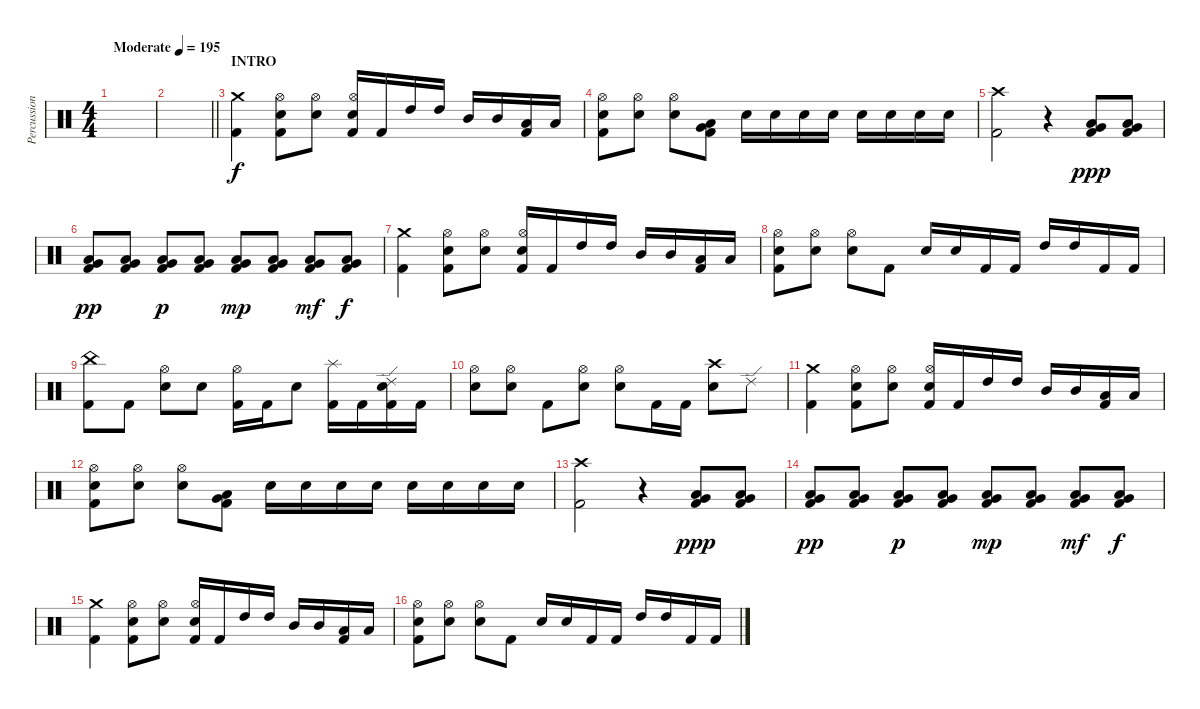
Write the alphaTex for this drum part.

\track ("Percussion" "Percussion") {instrument percussion}
\staff {score}
\articulation defaults
\ts (4 4)
\tempo (195 "Moderate")
\clef neutral
\ks c
|
\barLineRight lightlight
|
\section ("" "INTRO")
("Crash medium (hit)" "Kick (hit) 2").4 ("Hi-Hat (open)" "Electric Snare (hit)" "Kick (hit) 2").8 ("Hi-Hat (open)" "Electric Snare (hit)").8 ("Hi-Hat (open)" "Electric Snare (hit)" "Kick (hit) 2").16 "Kick (hit) 2".16 "High Tom (hit)".16 "High Tom (hit)".16 "Mid Tom (hit)".16 "Mid Tom (hit)".16 ("Low Tom (hit)" "Kick (hit) 2").16 "Low Tom (hit)".16 |
("Hi-Hat (open)" "Electric Snare (hit)" "Kick (hit) 2").8 ("Hi-Hat (open)" "Electric Snare (hit)").8 ("Hi-Hat (open)" "Electric Snare (hit)").8 ("Very Low Tom (hit)" "Low Floor Tom (hit)" "Kick (hit) 2").8 "Electric Snare (hit)".16 "Electric Snare (hit)".16 "Electric Snare (hit)".16 "Electric Snare (hit)".16 "Electric Snare (hit)".16 "Electric Snare (hit)".16 "Electric Snare (hit)".16 "Electric Snare (hit)".16 |
("Crash high (hit)" "Kick (hit) 2").2 r.4 ("Very Low Tom (hit)" "Low Floor Tom (hit)" "Kick (hit) 2").8{dy ppp} ("Very Low Tom (hit)" "Low Floor Tom (hit)" "Kick (hit) 2").8 |
("Very Low Tom (hit)" "Low Floor Tom (hit)" "Kick (hit) 2").8{dy pp} ("Very Low Tom (hit)" "Low Floor Tom (hit)" "Kick (hit) 2").8 ("Very Low Tom (hit)" "Low Floor Tom (hit)" "Kick (hit) 2").8{dy p} ("Very Low Tom (hit)" "Low Floor Tom (hit)" "Kick (hit) 2").8 ("Very Low Tom (hit)" "Low Floor Tom (hit)" "Kick (hit) 2").8{dy mp} ("Very Low Tom (hit)" "Low Floor Tom (hit)" "Kick (hit) 2").8 ("Very Low Tom (hit)" "Low Floor Tom (hit)" "Kick (hit) 2").8{dy mf} ("Very Low Tom (hit)" "Low Floor Tom (hit)" "Kick (hit) 2").8{dy f} |
("Crash medium (hit)" "Kick (hit) 2").4 ("Hi-Hat (open)" "Electric Snare (hit)" "Kick (hit) 2").8 ("Hi-Hat (open)" "Electric Snare (hit)").8 ("Hi-Hat (open)" "Electric Snare (hit)" "Kick (hit) 2").16 "Kick (hit) 2".16 "High Tom (hit)".16 "High Tom (hit)".16 "Mid Tom (hit)".16 "Mid Tom (hit)".16 ("Low Tom (hit)" "Kick (hit) 2").16 "Low Tom (hit)".16 |
("Hi-Hat (open)" "Electric Snare (hit)" "Kick (hit) 2").8 ("Hi-Hat (open)" "Electric Snare (hit)").8 ("Hi-Hat (open)" "Electric Snare (hit)").8 "Kick (hit) 2".8 "Electric Snare (hit)".16 "Electric Snare (hit)".16 "Kick (hit) 2".16 "Kick (hit) 2".16 "High Tom (hit)".16 "High Tom (hit)".16 "Kick (hit) 2".16 "Kick (hit) 2".16 |
("China (hit)" "Kick (hit) 2").8 "Kick (hit) 2".8 ("Hi-Hat (open)" "Electric Snare (hit)").8 "Electric Snare (hit)".8 ("Hi-Hat (open)" "Kick (hit) 2").16 "Kick (hit) 2".16 "Electric Snare (hit)".8 ("Splash (hit)" "Kick (hit) 2").16 "Kick (hit) 2".16 ("Ride (edge) 2" "Electric Snare (hit)" "Kick (hit) 2").16 "Kick (hit) 2".16 |
("Hi-Hat (open)" "Electric Snare (hit)").8 ("Hi-Hat (open)" "Electric Snare (hit)").8 "Kick (hit) 2".8 ("Hi-Hat (open)" "Electric Snare (hit)").8 ("Hi-Hat (open)" "Electric Snare (hit)").8 "Kick (hit) 2".16 "Kick (hit) 2".16 ("Crash high (hit)" "Electric Snare (hit)").8 "Ride (edge) 2".8 |
("Crash medium (hit)" "Kick (hit) 2").4 ("Hi-Hat (open)" "Electric Snare (hit)" "Kick (hit) 2").8 ("Hi-Hat (open)" "Electric Snare (hit)").8 ("Hi-Hat (open)" "Electric Snare (hit)" "Kick (hit) 2").16 "Kick (hit) 2".16 "High Tom (hit)".16 "High Tom (hit)".16 "Mid Tom (hit)".16 "Mid Tom (hit)".16 ("Low Tom (hit)" "Kick (hit) 2").16 "Low Tom (hit)".16 |
("Hi-Hat (open)" "Electric Snare (hit)" "Kick (hit) 2").8 ("Hi-Hat (open)" "Electric Snare (hit)").8 ("Hi-Hat (open)" "Electric Snare (hit)").8 ("Very Low Tom (hit)" "Low Floor Tom (hit)" "Kick (hit) 2").8 "Electric Snare (hit)".16 "Electric Snare (hit)".16 "Electric Snare (hit)".16 "Electric Snare (hit)".16 "Electric Snare (hit)".16 "Electric Snare (hit)".16 "Electric Snare (hit)".16 "Electric Snare (hit)".16 |
("Crash high (hit)" "Kick (hit) 2").2 r.4 ("Very Low Tom (hit)" "Low Floor Tom (hit)" "Kick (hit) 2").8{dy ppp} ("Very Low Tom (hit)" "Low Floor Tom (hit)" "Kick (hit) 2").8 |
("Very Low Tom (hit)" "Low Floor Tom (hit)" "Kick (hit) 2").8{dy pp} ("Very Low Tom (hit)" "Low Floor Tom (hit)" "Kick (hit) 2").8 ("Very Low Tom (hit)" "Low Floor Tom (hit)" "Kick (hit) 2").8{dy p} ("Very Low Tom (hit)" "Low Floor Tom (hit)" "Kick (hit) 2").8 ("Very Low Tom (hit)" "Low Floor Tom (hit)" "Kick (hit) 2").8{dy mp} ("Very Low Tom (hit)" "Low Floor Tom (hit)" "Kick (hit) 2").8 ("Very Low Tom (hit)" "Low Floor Tom (hit)" "Kick (hit) 2").8{dy mf} ("Very Low Tom (hit)" "Low Floor Tom (hit)" "Kick (hit) 2").8{dy f} |
("Crash medium (hit)" "Kick (hit) 2").4 ("Hi-Hat (open)" "Electric Snare (hit)" "Kick (hit) 2").8 ("Hi-Hat (open)" "Electric Snare (hit)").8 ("Hi-Hat (open)" "Electric Snare (hit)" "Kick (hit) 2").16 "Kick (hit) 2".16 "High Tom (hit)".16 "High Tom (hit)".16 "Mid Tom (hit)".16 "Mid Tom (hit)".16 ("Low Tom (hit)" "Kick (hit) 2").16 "Low Tom (hit)".16 |
("Hi-Hat (open)" "Electric Snare (hit)" "Kick (hit) 2").8 ("Hi-Hat (open)" "Electric Snare (hit)").8 ("Hi-Hat (open)" "Electric Snare (hit)").8 "Kick (hit) 2".8 "Electric Snare (hit)".16 "Electric Snare (hit)".16 "Kick (hit) 2".16 "Kick (hit) 2".16 "High Tom (hit)".16 "High Tom (hit)".16 "Kick (hit) 2".16 "Kick (hit) 2".16
